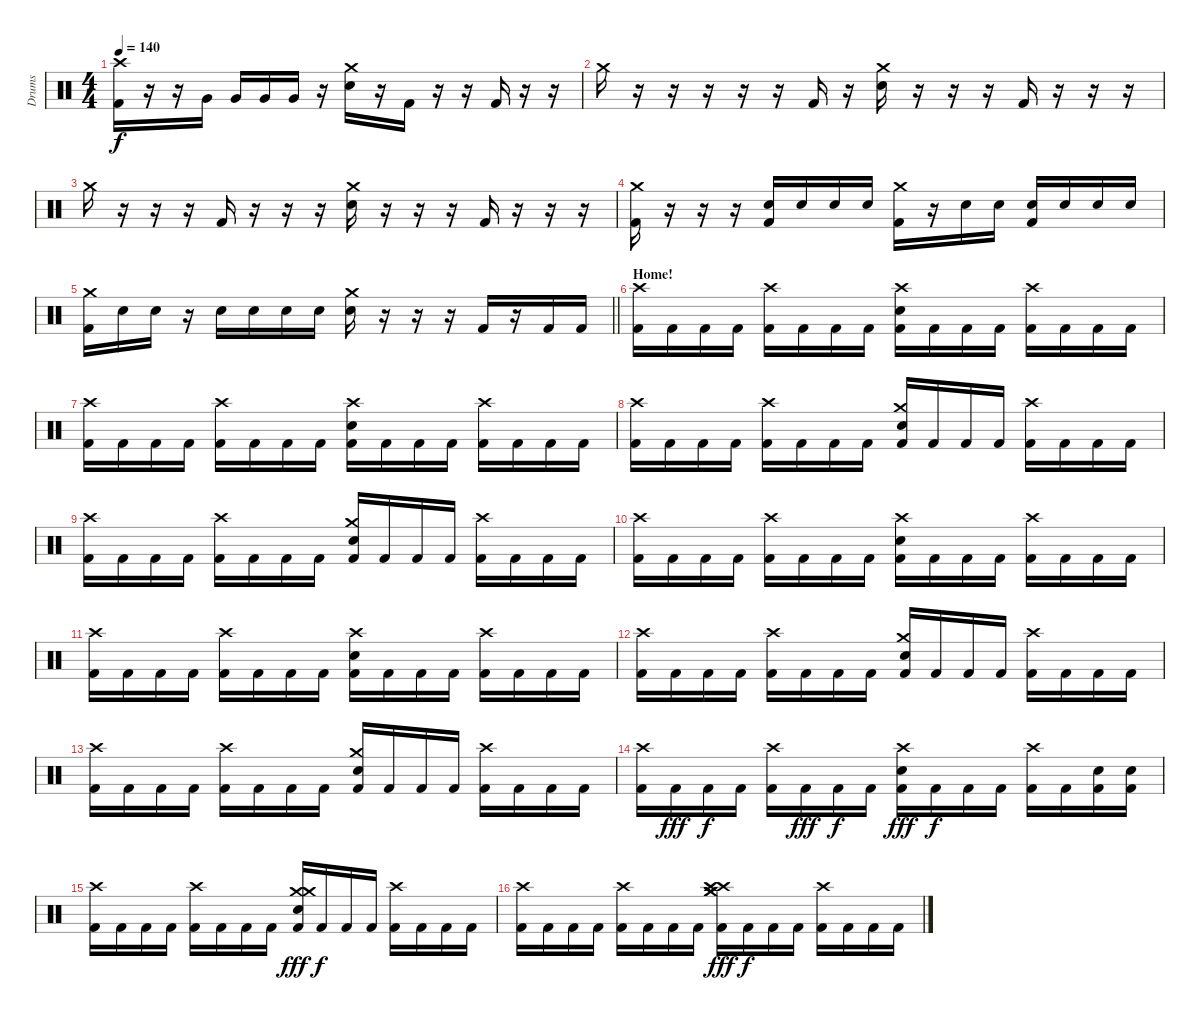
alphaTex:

\track ("Drums" "Drums") {instrument percussion}
\staff {score}
\articulation defaults
\ts (4 4)
\tempo 140
\clef neutral
\ks c
("Crash high (hit)" "Kick (hit) 2").16{dy f} r.16 r.16 "Very Low Tom (hit)".16 "Very Low Tom (hit)".16 "Very Low Tom (hit)".16 "Very Low Tom (hit)".16 r.16 ("Crash medium (hit)" "Snare (hit) 2").16 r.16 "Kick (hit) 2".16 r.16 r.16 "Kick (hit) 2".16 r.16 r.16 |
"Crash medium (hit)".16 r.16 r.16 r.16 r.16 r.16 "Kick (hit) 2".16 r.16 ("Crash medium (hit)" "Snare (hit) 2").16 r.16 r.16 r.16 "Kick (hit) 2".16 r.16 r.16 r.16 |
"Crash medium (hit)".16 r.16 r.16 r.16 "Kick (hit) 2".16 r.16 r.16 r.16 ("Crash medium (hit)" "Snare (hit) 2").16 r.16 r.16 r.16 "Kick (hit) 2".16 r.16 r.16 r.16 |
("Crash medium (hit)" "Kick (hit) 2").16 r.16 r.16 r.16 ("Snare (hit) 2" "Kick (hit) 2").16 "Snare (hit) 2".16 "Snare (hit) 2".16 "Snare (hit) 2".16 ("Crash medium (hit)" "Kick (hit) 2").16 r.16 "Snare (hit) 2".16 "Snare (hit) 2".16 ("Snare (hit) 2" "Kick (hit) 2").16 "Snare (hit) 2".16 "Snare (hit) 2".16 "Snare (hit) 2".16 |
\barLineRight lightlight
("Crash medium (hit)" "Kick (hit) 2").16 "Snare (hit) 2".16 "Snare (hit) 2".16 r.16 "Snare (hit) 2".16 "Snare (hit) 2".16 "Snare (hit) 2".16 "Snare (hit) 2".16 ("Crash medium (hit)" "Snare (hit) 2").16 r.16 r.16 r.16 "Kick (hit) 2".16 r.16 "Kick (hit) 2".16 "Kick (hit) 2".16 |
\section ("" "Home!")
("Crash high (hit)" "Kick (hit) 2").16 "Kick (hit) 2".16 "Kick (hit) 2".16 "Kick (hit) 2".16 ("Crash high (hit)" "Kick (hit) 2").16 "Kick (hit) 2".16 "Kick (hit) 2".16 "Kick (hit) 2".16 ("Crash high (hit)" "Snare (hit) 2" "Kick (hit) 2").16 "Kick (hit) 2".16 "Kick (hit) 2".16 "Kick (hit) 2".16 ("Crash high (hit)" "Kick (hit) 2").16 "Kick (hit) 2".16 "Kick (hit) 2".16 "Kick (hit) 2".16 |
("Crash high (hit)" "Kick (hit) 2").16 "Kick (hit) 2".16 "Kick (hit) 2".16 "Kick (hit) 2".16 ("Crash high (hit)" "Kick (hit) 2").16 "Kick (hit) 2".16 "Kick (hit) 2".16 "Kick (hit) 2".16 ("Crash high (hit)" "Snare (hit) 2" "Kick (hit) 2").16 "Kick (hit) 2".16 "Kick (hit) 2".16 "Kick (hit) 2".16 ("Crash high (hit)" "Kick (hit) 2").16 "Kick (hit) 2".16 "Kick (hit) 2".16 "Kick (hit) 2".16 |
("Crash high (hit)" "Kick (hit) 2").16 "Kick (hit) 2".16 "Kick (hit) 2".16 "Kick (hit) 2".16 ("Crash high (hit)" "Kick (hit) 2").16 "Kick (hit) 2".16 "Kick (hit) 2".16 "Kick (hit) 2".16 ("Crash medium (hit)" "Snare (hit) 2" "Kick (hit) 2").16 "Kick (hit) 2".16 "Kick (hit) 2".16 "Kick (hit) 2".16 ("Crash high (hit)" "Kick (hit) 2").16 "Kick (hit) 2".16 "Kick (hit) 2".16 "Kick (hit) 2".16 |
("Crash high (hit)" "Kick (hit) 2").16 "Kick (hit) 2".16 "Kick (hit) 2".16 "Kick (hit) 2".16 ("Crash high (hit)" "Kick (hit) 2").16 "Kick (hit) 2".16 "Kick (hit) 2".16 "Kick (hit) 2".16 ("Crash medium (hit)" "Snare (hit) 2" "Kick (hit) 2").16 "Kick (hit) 2".16 "Kick (hit) 2".16 "Kick (hit) 2".16 ("Crash high (hit)" "Kick (hit) 2").16 "Kick (hit) 2".16 "Kick (hit) 2".16 "Kick (hit) 2".16 |
("Crash high (hit)" "Kick (hit) 2").16 "Kick (hit) 2".16 "Kick (hit) 2".16 "Kick (hit) 2".16 ("Crash high (hit)" "Kick (hit) 2").16 "Kick (hit) 2".16 "Kick (hit) 2".16 "Kick (hit) 2".16 ("Crash high (hit)" "Snare (hit) 2" "Kick (hit) 2").16 "Kick (hit) 2".16 "Kick (hit) 2".16 "Kick (hit) 2".16 ("Crash high (hit)" "Kick (hit) 2").16 "Kick (hit) 2".16 "Kick (hit) 2".16 "Kick (hit) 2".16 |
("Crash high (hit)" "Kick (hit) 2").16 "Kick (hit) 2".16 "Kick (hit) 2".16 "Kick (hit) 2".16 ("Crash high (hit)" "Kick (hit) 2").16 "Kick (hit) 2".16 "Kick (hit) 2".16 "Kick (hit) 2".16 ("Crash high (hit)" "Snare (hit) 2" "Kick (hit) 2").16 "Kick (hit) 2".16 "Kick (hit) 2".16 "Kick (hit) 2".16 ("Crash high (hit)" "Kick (hit) 2").16 "Kick (hit) 2".16 "Kick (hit) 2".16 "Kick (hit) 2".16 |
("Crash high (hit)" "Kick (hit) 2").16 "Kick (hit) 2".16 "Kick (hit) 2".16 "Kick (hit) 2".16 ("Crash high (hit)" "Kick (hit) 2").16 "Kick (hit) 2".16 "Kick (hit) 2".16 "Kick (hit) 2".16 ("Crash medium (hit)" "Snare (hit) 2" "Kick (hit) 2").16 "Kick (hit) 2".16 "Kick (hit) 2".16 "Kick (hit) 2".16 ("Crash high (hit)" "Kick (hit) 2").16 "Kick (hit) 2".16 "Kick (hit) 2".16 "Kick (hit) 2".16 |
("Crash high (hit)" "Kick (hit) 2").16 "Kick (hit) 2".16 "Kick (hit) 2".16 "Kick (hit) 2".16 ("Crash high (hit)" "Kick (hit) 2").16 "Kick (hit) 2".16 "Kick (hit) 2".16 "Kick (hit) 2".16 ("Crash medium (hit)" "Snare (hit) 2" "Kick (hit) 2").16 "Kick (hit) 2".16 "Kick (hit) 2".16 "Kick (hit) 2".16 ("Crash high (hit)" "Kick (hit) 2").16 "Kick (hit) 2".16 "Kick (hit) 2".16 "Kick (hit) 2".16 |
("Crash high (hit)" "Kick (hit) 2").16 "Kick (hit) 2".16{dy fff} "Kick (hit) 2".16{dy f} "Kick (hit) 2".16 ("Crash high (hit)" "Kick (hit) 2").16 "Kick (hit) 2".16{dy fff} "Kick (hit) 2".16{dy f} "Kick (hit) 2".16 ("Crash high (hit)" "Snare (hit) 2" "Kick (hit) 2").16{dy fff} "Kick (hit) 2".16{dy f} "Kick (hit) 2".16 "Kick (hit) 2".16 ("Crash high (hit)" "Kick (hit) 2").16 "Kick (hit) 2".16 ("Snare (hit) 2" "Kick (hit) 2").16 ("Snare (hit) 2" "Kick (hit) 2").16 |
("Crash high (hit)" "Kick (hit) 2").16 "Kick (hit) 2".16 "Kick (hit) 2".16 "Kick (hit) 2".16 ("Crash high (hit)" "Kick (hit) 2").16 "Kick (hit) 2".16 "Kick (hit) 2".16 "Kick (hit) 2".16 ("Crash medium (hit)" "Crash medium (hit)" "Snare (hit) 2" "Kick (hit) 2").16{dy fff} "Kick (hit) 2".16{dy f} "Kick (hit) 2".16 "Kick (hit) 2".16 ("Crash high (hit)" "Kick (hit) 2").16 "Kick (hit) 2".16 "Kick (hit) 2".16 "Kick (hit) 2".16 |
("Crash high (hit)" "Kick (hit) 2").16 "Kick (hit) 2".16 "Kick (hit) 2".16 "Kick (hit) 2".16 ("Crash high (hit)" "Kick (hit) 2").16 "Kick (hit) 2".16 "Kick (hit) 2".16 "Kick (hit) 2".16 ("Crash medium (hit)" "Crash high (hit)" "Crash high (hit)" "Crash medium (hit)" "Kick (hit) 2").16{dy fff} "Kick (hit) 2".16{dy f} "Kick (hit) 2".16 "Kick (hit) 2".16 ("Crash high (hit)" "Kick (hit) 2").16 "Kick (hit) 2".16 "Kick (hit) 2".16 "Kick (hit) 2".16
